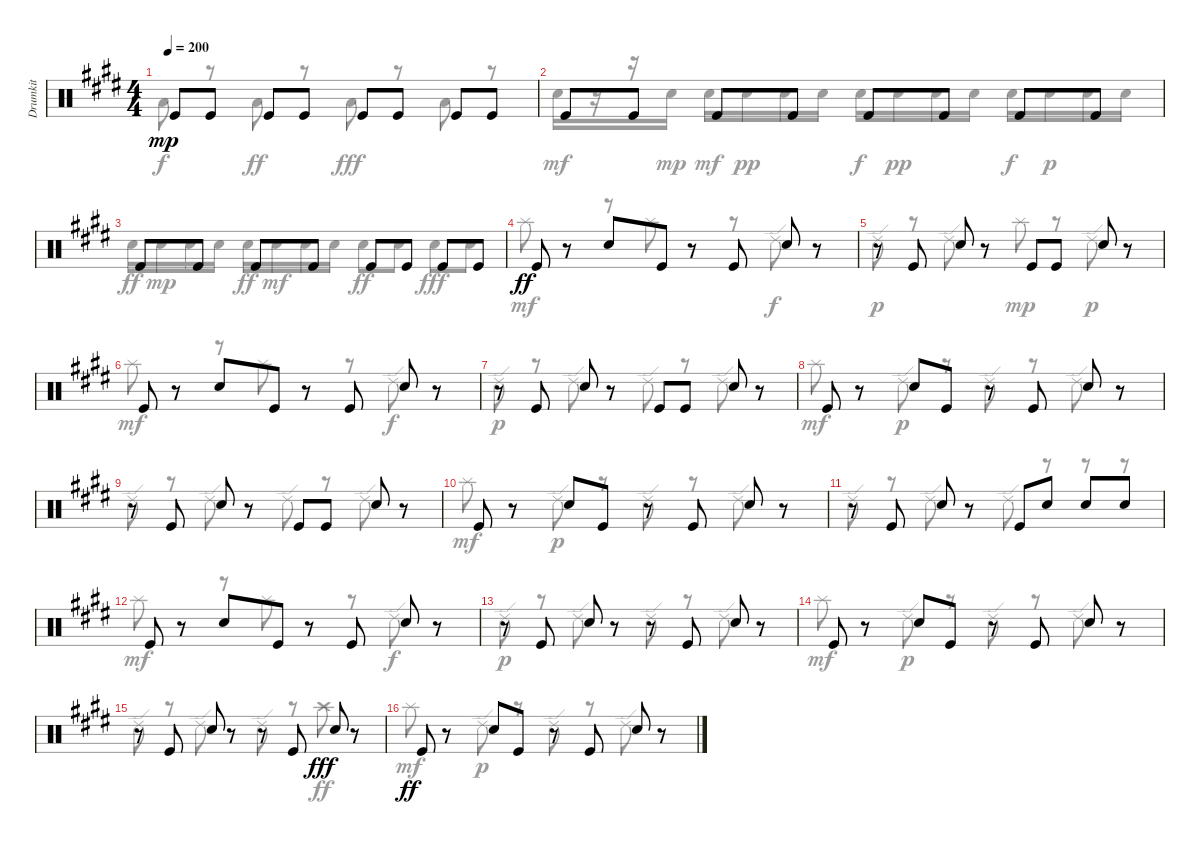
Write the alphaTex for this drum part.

\track ("Drumkit" "Drumkit") {instrument percussion}
\staff {score}
\articulation defaults
\voice
\ts (4 4)
\tempo 200
\clef neutral
\ks c#minor "Kick (hit)".8{dy mp} "Kick (hit)".8 "Kick (hit)".8 "Kick (hit)".8 "Kick (hit)".8 "Kick (hit)".8 "Kick (hit)".8 "Kick (hit)".8
|
"Kick (hit)".8 "Kick (hit)".8 "Kick (hit)".8 "Kick (hit)".8 "Kick (hit)".8 "Kick (hit)".8 "Kick (hit)".8 "Kick (hit)".8 |
"Kick (hit)".8 "Kick (hit)".8 "Kick (hit)".8 "Kick (hit)".8 "Kick (hit)".8 "Kick (hit)".8 "Kick (hit)".8 "Kick (hit)".8 |
"Kick (hit)".8{dy ff} r.8 "Snare (hit) 2".8 "Kick (hit)".8 r.8 "Kick (hit)".8 "Snare (hit) 2".8 r.8 |
r.8 "Kick (hit)".8 "Snare (hit) 2".8 r.8 "Kick (hit)".8 "Kick (hit)".8 "Snare (hit) 2".8 r.8 |
"Kick (hit)".8 r.8 "Snare (hit) 2".8 "Kick (hit)".8 r.8 "Kick (hit)".8 "Snare (hit) 2".8 r.8 |
r.8 "Kick (hit)".8 "Snare (hit) 2".8 r.8 "Kick (hit)".8 "Kick (hit)".8 "Snare (hit) 2".8 r.8 |
"Kick (hit)".8 r.8 "Snare (hit) 2".8 "Kick (hit)".8 r.8 "Kick (hit)".8 "Snare (hit) 2".8 r.8 |
r.8 "Kick (hit)".8 "Snare (hit) 2".8 r.8 "Kick (hit)".8 "Kick (hit)".8 "Snare (hit) 2".8 r.8 |
"Kick (hit)".8 r.8 "Snare (hit) 2".8 "Kick (hit)".8 r.8 "Kick (hit)".8 "Snare (hit) 2".8 r.8 |
r.8 "Kick (hit)".8 "Snare (hit) 2".8 r.8 "Kick (hit)".8 "Snare (hit) 2".8 "Snare (hit) 2".8 "Snare (hit) 2".8 |
"Kick (hit)".8 r.8 "Snare (hit) 2".8 "Kick (hit)".8 r.8 "Kick (hit)".8 "Snare (hit) 2".8 r.8 |
r.8 "Kick (hit)".8 "Snare (hit) 2".8 r.8 r.8 "Kick (hit)".8 "Snare (hit) 2".8 r.8 |
"Kick (hit)".8 r.8 "Snare (hit) 2".8 "Kick (hit)".8 r.8 "Kick (hit)".8 "Snare (hit) 2".8 r.8 |
r.8 "Kick (hit)".8 "Snare (hit) 2".8 r.8 r.8 "Kick (hit)".8 "Snare (hit) 2".8{dy fff} r.8 |
"Kick (hit)".8{dy ff} r.8 "Snare (hit) 2".8 "Kick (hit)".8 r.8 "Kick (hit)".8 "Snare (hit) 2".8 r.8
\voice
\clef neutral
\ottava regular
\simile none
\ks c#minor "Low Tom (hit)".8{dy f}
r.8 "Low Tom (hit)".8{dy ff} r.8 "Low Tom (hit)".8{dy fff} r.8 "Low Floor Tom (hit)".8 r.8 |
"Snare (hit) 2".16{dy mf} r.16 r.16 "Snare (hit) 2".16{dy mp} "Snare (hit) 2".16{dy mf} "Snare (hit) 2".16{dy pp} "Snare (hit) 2".16 "Snare (hit) 2".16 "Snare (hit) 2".16{dy f} "Snare (hit) 2".16{dy pp} "Snare (hit) 2".16 "Snare (hit) 2".16 "Snare (hit) 2".16{dy f} "Snare (hit) 2".16{dy p} "Snare (hit) 2".16 "Snare (hit) 2".16 |
"Snare (hit) 2".16{dy ff} "Snare (hit) 2".16{dy mp} "Snare (hit) 2".16 "Snare (hit) 2".16 "Snare (hit) 2".16{dy ff} "Snare (hit) 2".16{dy mf} "Snare (hit) 2".16 "Snare (hit) 2".16 "Snare (hit) 2".8{dy ff} "Snare (hit) 2".8 "Snare (hit) 2".8{dy fff} "Snare (hit) 2".8 |
"Splash (hit)".8{dy mf} r.8 r.8 "Splash (hit)".8 r.8 r.8 "Ride (edge) 2".8{dy f} r.8 |
"Ride (edge) 2".8{dy p} r.8 "Ride (edge) 2".8 r.8 "Splash (hit)".8{dy mp} r.8 "Ride (edge) 2".8{dy p} r.8 |
"Splash (hit)".8{dy mf} r.8 r.8 "Splash (hit)".8 r.8 r.8 "Ride (edge) 2".8{dy f} r.8 |
"Ride (edge) 2".8{dy p} r.8 "Ride (edge) 2".8 r.8 "Ride (edge) 2".8 r.8 "Ride (edge) 2".8 r.8 |
"Splash (hit)".8{dy mf} r.8 "Ride (edge) 2".8{dy p} r.8 "Ride (edge) 2".8 r.8 "Ride (edge) 2".8 r.8 |
"Ride (edge) 2".8 r.8 "Ride (edge) 2".8 r.8 "Ride (edge) 2".8 r.8 "Ride (edge) 2".8 r.8 |
"Splash (hit)".8{dy mf} r.8 "Ride (edge) 2".8{dy p} r.8 "Ride (edge) 2".8 r.8 "Ride (edge) 2".8 r.8 |
"Ride (edge) 2".8 r.8 "Ride (edge) 2".8 r.8 "Ride (edge) 2".8 r.8 r.8 r.8 |
"Splash (hit)".8{dy mf} r.8 r.8 "Splash (hit)".8 r.8 r.8 "Ride (edge) 2".8{dy f} r.8 |
"Ride (edge) 2".8{dy p} r.8 "Ride (edge) 2".8 r.8 "Ride (edge) 2".8 r.8 "Ride (edge) 2".8 r.8 |
"Splash (hit)".8{dy mf} r.8 "Ride (edge) 2".8{dy p} r.8 "Ride (edge) 2".8 r.8 "Ride (edge) 2".8 r.8 |
"Ride (edge) 2".8 r.8 "Ride (edge) 2".8 r.8 "Ride (edge) 2".8 r.8 "Crash high (hit)".8{dy ff} r.8 |
"Splash (hit)".8{dy mf} r.8 "Ride (edge) 2".8{dy p} r.8 "Ride (edge) 2".8 r.8 "Ride (edge) 2".8 r.8
